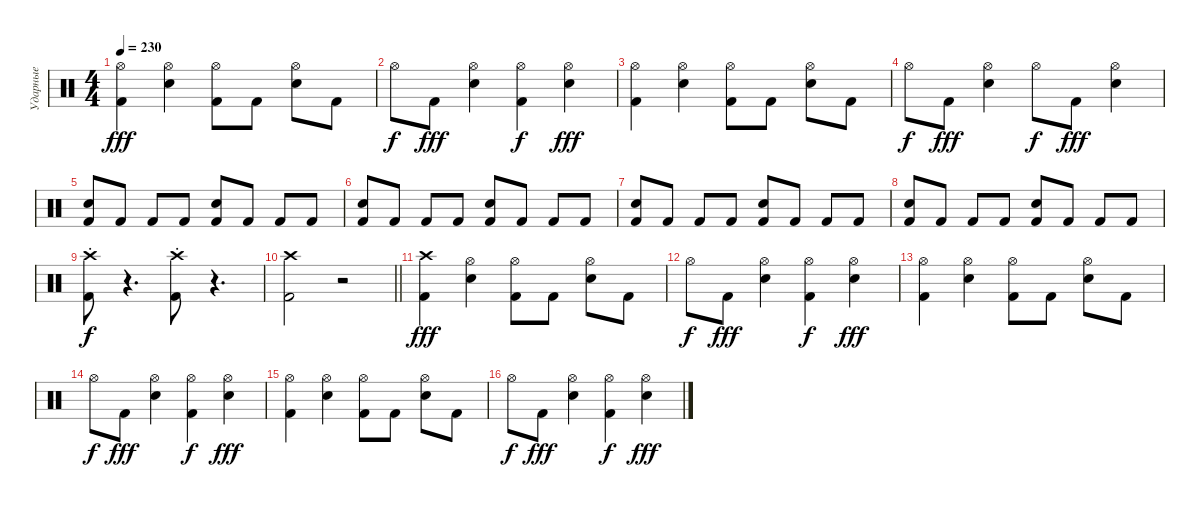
\track ("Ударные" "Ударные") {instrument percussion}
\staff {score}
\articulation defaults
\ts (4 4)
\tempo 230
\clef neutral
\ks c
("Kick (hit) 2" "Hi-Hat (open)").4{dy fff} ("Snare (hit) 2" "Hi-Hat (open)").4 ("Kick (hit) 2" "Hi-Hat (open)").8 "Kick (hit) 2".8 ("Snare (hit) 2" "Hi-Hat (open)").8 "Kick (hit) 2".8 |
"Hi-Hat (open)".8{dy f} "Kick (hit) 2".8{dy fff} ("Snare (hit) 2" "Hi-Hat (open)").4 ("Kick (hit) 2" "Hi-Hat (open)").4{dy f} ("Snare (hit) 2" "Hi-Hat (open)").4{dy fff} |
("Kick (hit) 2" "Hi-Hat (open)").4 ("Snare (hit) 2" "Hi-Hat (open)").4 ("Kick (hit) 2" "Hi-Hat (open)").8 "Kick (hit) 2".8 ("Snare (hit) 2" "Hi-Hat (open)").8 "Kick (hit) 2".8 |
"Hi-Hat (open)".8{dy f} "Kick (hit) 2".8{dy fff} ("Snare (hit) 2" "Hi-Hat (open)").4 "Hi-Hat (open)".8{dy f} "Kick (hit) 2".8{dy fff} ("Snare (hit) 2" "Hi-Hat (open)").4 |
("Kick (hit) 2" "Snare (hit) 2").8 "Kick (hit) 2".8 "Kick (hit) 2".8 "Kick (hit) 2".8 ("Kick (hit) 2" "Snare (hit) 2").8 "Kick (hit) 2".8 "Kick (hit) 2".8 "Kick (hit) 2".8 |
("Kick (hit) 2" "Snare (hit) 2").8 "Kick (hit) 2".8 "Kick (hit) 2".8 "Kick (hit) 2".8 ("Kick (hit) 2" "Snare (hit) 2").8 "Kick (hit) 2".8 "Kick (hit) 2".8 "Kick (hit) 2".8 |
("Kick (hit) 2" "Snare (hit) 2").8 "Kick (hit) 2".8 "Kick (hit) 2".8 "Kick (hit) 2".8 ("Kick (hit) 2" "Snare (hit) 2").8 "Kick (hit) 2".8 "Kick (hit) 2".8 "Kick (hit) 2".8 |
("Kick (hit) 2" "Snare (hit) 2").8 "Kick (hit) 2".8 "Kick (hit) 2".8 "Kick (hit) 2".8 ("Kick (hit) 2" "Snare (hit) 2").8 "Kick (hit) 2".8 "Kick (hit) 2".8 "Kick (hit) 2".8 |
("Kick (hit) 2"{st} "Crash high (hit)"{st}).8{dy f} r.4{d} ("Kick (hit) 2"{st} "Crash high (hit)"{st}).8 r.4{d} |
\barLineRight lightlight
("Kick (hit) 2" "Crash high (hit)").2 r.2 |
("Kick (hit) 2" "Crash high (hit)").4{dy fff} ("Snare (hit) 2" "Hi-Hat (open)").4 ("Kick (hit) 2" "Hi-Hat (open)").8 "Kick (hit) 2".8 ("Snare (hit) 2" "Hi-Hat (open)").8 "Kick (hit) 2".8 |
"Hi-Hat (open)".8{dy f} "Kick (hit) 2".8{dy fff} ("Snare (hit) 2" "Hi-Hat (open)").4 ("Kick (hit) 2" "Hi-Hat (open)").4{dy f} ("Snare (hit) 2" "Hi-Hat (open)").4{dy fff} |
("Kick (hit) 2" "Hi-Hat (open)").4 ("Snare (hit) 2" "Hi-Hat (open)").4 ("Kick (hit) 2" "Hi-Hat (open)").8 "Kick (hit) 2".8 ("Snare (hit) 2" "Hi-Hat (open)").8 "Kick (hit) 2".8 |
"Hi-Hat (open)".8{dy f} "Kick (hit) 2".8{dy fff} ("Snare (hit) 2" "Hi-Hat (open)").4 ("Kick (hit) 2" "Hi-Hat (open)").4{dy f} ("Snare (hit) 2" "Hi-Hat (open)").4{dy fff} |
("Kick (hit) 2" "Hi-Hat (open)").4 ("Snare (hit) 2" "Hi-Hat (open)").4 ("Kick (hit) 2" "Hi-Hat (open)").8 "Kick (hit) 2".8 ("Snare (hit) 2" "Hi-Hat (open)").8 "Kick (hit) 2".8 |
"Hi-Hat (open)".8{dy f} "Kick (hit) 2".8{dy fff} ("Snare (hit) 2" "Hi-Hat (open)").4 ("Kick (hit) 2" "Hi-Hat (open)").4{dy f} ("Snare (hit) 2" "Hi-Hat (open)").4{dy fff}
